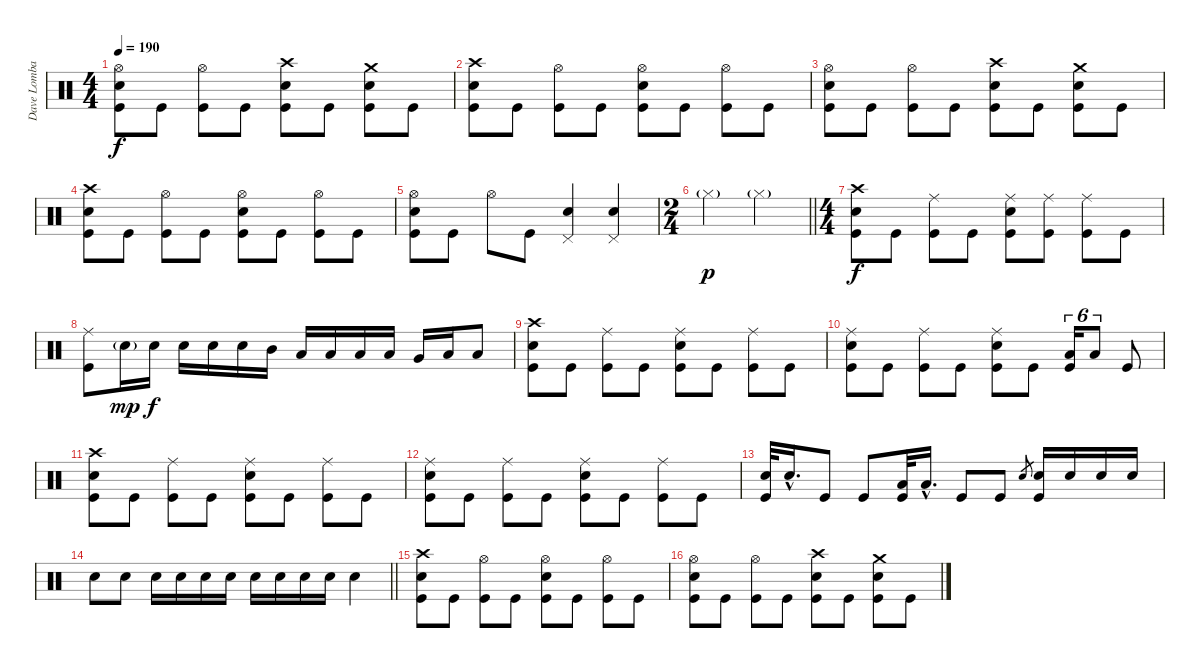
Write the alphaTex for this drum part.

\track ("Dave Lombardo" "Dave Lomba") {instrument percussion}
\staff {score}
\articulation defaults
\ts (4 4)
\tempo 190
\clef neutral
\ks c
("Hi-Hat (open)" "Electric Snare (hit)" "Kick (hit)").8{dy f} "Kick (hit)".8 ("Hi-Hat (open)" "Kick (hit)").8 "Kick (hit)".8 ("Crash high (hit)" "Electric Snare (hit)" "Kick (hit)").8 "Kick (hit)".8 ("Crash medium (hit)" "Electric Snare (hit)" "Kick (hit)").8 "Kick (hit)".8 |
("Crash high (hit)" "Electric Snare (hit)" "Kick (hit)").8 "Kick (hit)".8 ("Hi-Hat (open)" "Kick (hit)").8 "Kick (hit)".8 ("Hi-Hat (open)" "Electric Snare (hit)" "Kick (hit)").8 "Kick (hit)".8 ("Hi-Hat (open)" "Kick (hit)").8 "Kick (hit)".8 |
("Hi-Hat (open)" "Electric Snare (hit)" "Kick (hit)").8 "Kick (hit)".8 ("Hi-Hat (open)" "Kick (hit)").8 "Kick (hit)".8 ("Crash high (hit)" "Electric Snare (hit)" "Kick (hit)").8 "Kick (hit)".8 ("Crash medium (hit)" "Electric Snare (hit)" "Kick (hit)").8 "Kick (hit)".8 |
("Crash high (hit)" "Electric Snare (hit)" "Kick (hit)").8 "Kick (hit)".8 ("Hi-Hat (open)" "Kick (hit)").8 "Kick (hit)".8 ("Hi-Hat (open)" "Electric Snare (hit)" "Kick (hit)").8 "Kick (hit)".8 ("Hi-Hat (open)" "Kick (hit)").8 "Kick (hit)".8 |
("Hi-Hat (open)" "Electric Snare (hit)" "Kick (hit)").8 "Kick (hit)".8 "Hi-Hat (open)".8 "Kick (hit)".8 ("Pedal Hi-Hat (hit)" "Snare (hit) 2").4 ("Pedal Hi-Hat (hit)" "Snare (hit) 2").4 |
\ts (2 4)
\barLineRight lightlight "Hi-Hat (closed)"{g}.4{dy p} "Hi-Hat (closed)"{g}.4
|
\ts (4 4)
\section ("" "")
("Crash high (hit)" "Electric Snare (hit)" "Kick (hit)").8{dy f} "Kick (hit)".8 ("Ride (middle)" "Kick (hit)").8 "Kick (hit)".8 ("Ride (middle)" "Electric Snare (hit)" "Kick (hit)").8 ("Ride (middle)" "Kick (hit)").8 ("Ride (middle)" "Kick (hit)").8 "Kick (hit)".8 |
("Ride (middle)" "Kick (hit)").8 "Electric Snare (hit)"{g}.16{dy mp} "Electric Snare (hit)".16{dy f} "Electric Snare (hit)".16 "Electric Snare (hit)".16 "Electric Snare (hit)".16 "Mid Tom (hit)".16 "Low Tom (hit)".16 "Low Tom (hit)".16 "Low Tom (hit)".16 "Low Tom (hit)".16 "Very Low Tom (hit)".16 "Low Floor Tom (hit)".16 "Low Floor Tom (hit)".8 |
("Crash high (hit)" "Electric Snare (hit)" "Kick (hit)").8 "Kick (hit)".8 ("Ride (middle)" "Kick (hit)").8 "Kick (hit)".8 ("Ride (middle)" "Electric Snare (hit)" "Kick (hit)").8 "Kick (hit)".8 ("Ride (middle)" "Kick (hit)").8 "Kick (hit)".8 |
("Ride (middle)" "Electric Snare (hit)" "Kick (hit)").8 "Kick (hit)".8 ("Ride (middle)" "Kick (hit)").8 "Kick (hit)".8 ("Ride (middle)" "Electric Snare (hit)" "Kick (hit)").8 "Kick (hit)".8 ("Low Floor Tom (hit)" "Kick (hit)").16{tu (6 4)} "Low Floor Tom (hit)".8{tu (6 4)} "Kick (hit)".8 |
("Crash high (hit)" "Electric Snare (hit)" "Kick (hit)").8 "Kick (hit)".8 ("Ride (middle)" "Kick (hit)").8 "Kick (hit)".8 ("Ride (middle)" "Electric Snare (hit)" "Kick (hit)").8 "Kick (hit)".8 ("Ride (middle)" "Kick (hit)").8 "Kick (hit)".8 |
("Ride (middle)" "Electric Snare (hit)" "Kick (hit)").8 "Kick (hit)".8 ("Ride (middle)" "Kick (hit)").8 "Kick (hit)".8 ("Ride (middle)" "Electric Snare (hit)" "Kick (hit)").8 "Kick (hit)".8 ("Ride (middle)" "Kick (hit)").8 "Kick (hit)".8 |
("Electric Snare (hit)" "Kick (hit)").32 "Electric Snare (hit)"{hac}.16{d} "Kick (hit)".8 "Kick (hit)".8 ("Low Tom (hit)" "Kick (hit)").32 "Low Tom (hit)"{hac}.16{d} "Kick (hit)".8 "Kick (hit)".8 "Electric Snare (hit)".8{gr} ("Electric Snare (hit)" "Kick (hit)").16 "Electric Snare (hit)".16 "Electric Snare (hit)".16 "Electric Snare (hit)".16 |
\barLineRight lightlight "Electric Snare (hit)".8 "Electric Snare (hit)".8 "Electric Snare (hit)".16 "Electric Snare (hit)".16 "Electric Snare (hit)".16 "Electric Snare (hit)".16 "Electric Snare (hit)".16 "Electric Snare (hit)".16 "Electric Snare (hit)".16 "Electric Snare (hit)".16 "Electric Snare (hit)".4
|
\section ("" "")
("Crash high (hit)" "Electric Snare (hit)" "Kick (hit)").8 "Kick (hit)".8 ("Hi-Hat (open)" "Kick (hit)").8 "Kick (hit)".8 ("Hi-Hat (open)" "Electric Snare (hit)" "Kick (hit)").8 "Kick (hit)".8 ("Hi-Hat (open)" "Kick (hit)").8 "Kick (hit)".8 |
("Hi-Hat (open)" "Electric Snare (hit)" "Kick (hit)").8 "Kick (hit)".8 ("Hi-Hat (open)" "Kick (hit)").8 "Kick (hit)".8 ("Crash high (hit)" "Electric Snare (hit)" "Kick (hit)").8 "Kick (hit)".8 ("Crash medium (hit)" "Electric Snare (hit)" "Kick (hit)").8 "Kick (hit)".8
